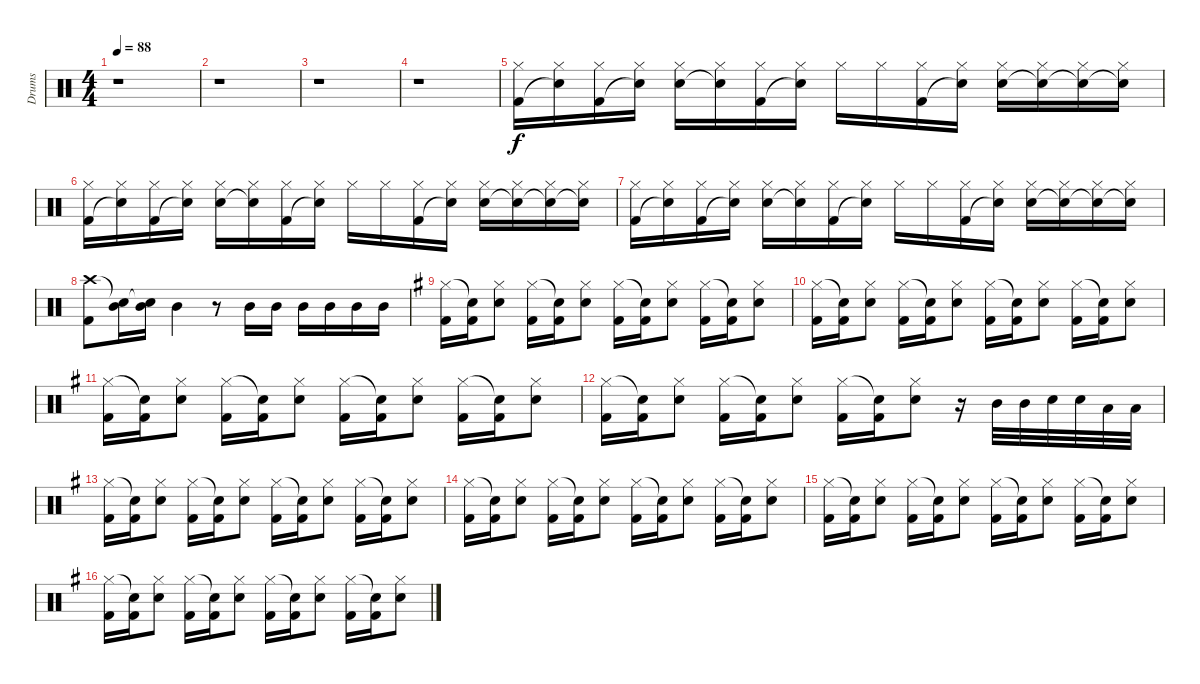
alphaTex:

\track ("Drums" "Drums") {instrument percussion}
\staff {score}
\articulation defaults
\ts (4 4)
\tempo 88
\clef neutral
\ks aminor
r.1{dy f} |
r.1 |
r.1 |
r.1 |
("Hi-Hat (closed)" "Kick (hit) 2").16 ("Hi-Hat (closed)" "Snare (hit)"{t}).16 ("Hi-Hat (closed)" "Kick (hit) 2").16 ("Hi-Hat (closed)" "Snare (hit)"{t}).16 ("Hi-Hat (closed)" "Snare (hit) 2").16 ("Hi-Hat (closed)" "Snare (hit)"{t}).16 ("Hi-Hat (closed)" "Kick (hit) 2").16 ("Hi-Hat (closed)" "Snare (hit)"{t}).16 "Hi-Hat (closed)".16 "Hi-Hat (closed)".16 ("Hi-Hat (closed)" "Kick (hit) 2").16 ("Hi-Hat (closed)" "Snare (hit)"{t}).16 ("Hi-Hat (closed)" "Snare (hit) 2").16 ("Hi-Hat (closed)" "Snare (hit)"{t}).16 ("Hi-Hat (closed)" "Snare (hit)"{t}).16 ("Hi-Hat (closed)" "Snare (hit)"{t}).16 |
("Hi-Hat (closed)" "Kick (hit) 2").16 ("Hi-Hat (closed)" "Snare (hit)"{t}).16 ("Hi-Hat (closed)" "Kick (hit) 2").16 ("Hi-Hat (closed)" "Snare (hit)"{t}).16 ("Hi-Hat (closed)" "Snare (hit) 2").16 ("Hi-Hat (closed)" "Snare (hit)"{t}).16 ("Hi-Hat (closed)" "Kick (hit) 2").16 ("Hi-Hat (closed)" "Snare (hit)"{t}).16 "Hi-Hat (closed)".16 "Hi-Hat (closed)".16 ("Hi-Hat (closed)" "Kick (hit) 2").16 ("Hi-Hat (closed)" "Snare (hit)"{t}).16 ("Hi-Hat (closed)" "Snare (hit) 2").16 ("Hi-Hat (closed)" "Snare (hit)"{t}).16 ("Hi-Hat (closed)" "Snare (hit)"{t}).16 ("Hi-Hat (closed)" "Snare (hit)"{t}).16 |
("Hi-Hat (closed)" "Kick (hit) 2").16 ("Hi-Hat (closed)" "Snare (hit)"{t}).16 ("Hi-Hat (closed)" "Kick (hit) 2").16 ("Hi-Hat (closed)" "Snare (hit)"{t}).16 ("Hi-Hat (closed)" "Snare (hit) 2").16 ("Hi-Hat (closed)" "Snare (hit)"{t}).16 ("Hi-Hat (closed)" "Kick (hit) 2").16 ("Hi-Hat (closed)" "Snare (hit)"{t}).16 "Hi-Hat (closed)".16 "Hi-Hat (closed)".16 ("Hi-Hat (closed)" "Kick (hit) 2").16 ("Hi-Hat (closed)" "Snare (hit)"{t}).16 ("Hi-Hat (closed)" "Snare (hit) 2").16 ("Hi-Hat (closed)" "Snare (hit)"{t}).16 ("Hi-Hat (closed)" "Snare (hit)"{t}).16 ("Hi-Hat (closed)" "Snare (hit)"{t}).16 |
("Crash high (hit)" "Kick (hit) 2").8 ("Snare (hit)"{t} "Mid Tom (hit)").16 ("Snare (hit)"{t} "Mid Tom (hit)").16 "Mid Tom (hit)".4 r.8 "Mid Tom (hit)".16 "Mid Tom (hit)".16 "Mid Tom (hit)".16 "Mid Tom (hit)".16 "Mid Tom (hit)".16 "Mid Tom (hit)".16 |
\ks eminor
("Hi-Hat (closed)" "Kick (hit) 2").16 ("Snare (hit)"{t} "Kick (hit) 2").16 ("Hi-Hat (closed)" "Snare (hit) 2").8 ("Hi-Hat (closed)" "Kick (hit) 2").16 ("Snare (hit)"{t} "Kick (hit) 2").16 ("Hi-Hat (closed)" "Snare (hit) 2").8 ("Hi-Hat (closed)" "Kick (hit) 2").16 ("Snare (hit)"{t} "Kick (hit) 2").16 ("Hi-Hat (closed)" "Snare (hit) 2").8 ("Hi-Hat (closed)" "Kick (hit) 2").16 ("Snare (hit)"{t} "Kick (hit) 2").16 ("Hi-Hat (closed)" "Snare (hit) 2").8 |
("Hi-Hat (closed)" "Kick (hit) 2").16 ("Snare (hit)"{t} "Kick (hit) 2").16 ("Hi-Hat (closed)" "Snare (hit) 2").8 ("Hi-Hat (closed)" "Kick (hit) 2").16 ("Snare (hit)"{t} "Kick (hit) 2").16 ("Hi-Hat (closed)" "Snare (hit) 2").8 ("Hi-Hat (closed)" "Kick (hit) 2").16 ("Snare (hit)"{t} "Kick (hit) 2").16 ("Hi-Hat (closed)" "Snare (hit) 2").8 ("Hi-Hat (closed)" "Kick (hit) 2").16 ("Snare (hit)"{t} "Kick (hit) 2").16 ("Hi-Hat (closed)" "Snare (hit) 2").8 |
("Hi-Hat (closed)" "Kick (hit) 2").16 ("Snare (hit)"{t} "Kick (hit) 2").16 ("Hi-Hat (closed)" "Snare (hit) 2").8 ("Hi-Hat (closed)" "Kick (hit) 2").16 ("Snare (hit)"{t} "Kick (hit) 2").16 ("Hi-Hat (closed)" "Snare (hit) 2").8 ("Hi-Hat (closed)" "Kick (hit) 2").16 ("Snare (hit)"{t} "Kick (hit) 2").16 ("Hi-Hat (closed)" "Snare (hit) 2").8 ("Hi-Hat (closed)" "Kick (hit) 2").16 ("Snare (hit)"{t} "Kick (hit) 2").16 ("Hi-Hat (closed)" "Snare (hit) 2").8 |
("Hi-Hat (closed)" "Kick (hit) 2").16 ("Snare (hit)"{t} "Kick (hit) 2").16 ("Hi-Hat (closed)" "Snare (hit) 2").8 ("Hi-Hat (closed)" "Kick (hit) 2").16 ("Snare (hit)"{t} "Kick (hit) 2").16 ("Hi-Hat (closed)" "Snare (hit) 2").8 ("Hi-Hat (closed)" "Kick (hit) 2").16 ("Snare (hit)"{t} "Kick (hit) 2").16 ("Hi-Hat (closed)" "Snare (hit) 2").8 r.16 "Mid Tom (hit)".32 "Mid Tom (hit)".32 "Snare (hit) 2".32 "Snare (hit) 2".32 "Low Tom (hit)".32 "Low Tom (hit)".32 |
("Hi-Hat (closed)" "Kick (hit) 2").16 ("Snare (hit)"{t} "Kick (hit) 2").16 ("Hi-Hat (closed)" "Snare (hit) 2").8 ("Hi-Hat (closed)" "Kick (hit) 2").16 ("Snare (hit)"{t} "Kick (hit) 2").16 ("Hi-Hat (closed)" "Snare (hit) 2").8 ("Hi-Hat (closed)" "Kick (hit) 2").16 ("Snare (hit)"{t} "Kick (hit) 2").16 ("Hi-Hat (closed)" "Snare (hit) 2").8 ("Hi-Hat (closed)" "Kick (hit) 2").16 ("Snare (hit)"{t} "Kick (hit) 2").16 ("Hi-Hat (closed)" "Snare (hit) 2").8 |
("Hi-Hat (closed)" "Kick (hit) 2").16 ("Snare (hit)"{t} "Kick (hit) 2").16 ("Hi-Hat (closed)" "Snare (hit) 2").8 ("Hi-Hat (closed)" "Kick (hit) 2").16 ("Snare (hit)"{t} "Kick (hit) 2").16 ("Hi-Hat (closed)" "Snare (hit) 2").8 ("Hi-Hat (closed)" "Kick (hit) 2").16 ("Snare (hit)"{t} "Kick (hit) 2").16 ("Hi-Hat (closed)" "Snare (hit) 2").8 ("Hi-Hat (closed)" "Kick (hit) 2").16 ("Snare (hit)"{t} "Kick (hit) 2").16 ("Hi-Hat (closed)" "Snare (hit) 2").8 |
("Hi-Hat (closed)" "Kick (hit) 2").16 ("Snare (hit)"{t} "Kick (hit) 2").16 ("Hi-Hat (closed)" "Snare (hit) 2").8 ("Hi-Hat (closed)" "Kick (hit) 2").16 ("Snare (hit)"{t} "Kick (hit) 2").16 ("Hi-Hat (closed)" "Snare (hit) 2").8 ("Hi-Hat (closed)" "Kick (hit) 2").16 ("Snare (hit)"{t} "Kick (hit) 2").16 ("Hi-Hat (closed)" "Snare (hit) 2").8 ("Hi-Hat (closed)" "Kick (hit) 2").16 ("Snare (hit)"{t} "Kick (hit) 2").16 ("Hi-Hat (closed)" "Snare (hit) 2").8 |
("Hi-Hat (closed)" "Kick (hit) 2").16 ("Snare (hit)"{t} "Kick (hit) 2").16 ("Hi-Hat (closed)" "Snare (hit) 2").8 ("Hi-Hat (closed)" "Kick (hit) 2").16 ("Snare (hit)"{t} "Kick (hit) 2").16 ("Hi-Hat (closed)" "Snare (hit) 2").8 ("Hi-Hat (closed)" "Kick (hit) 2").16 ("Snare (hit)"{t} "Kick (hit) 2").16 ("Hi-Hat (closed)" "Snare (hit) 2").8 ("Hi-Hat (closed)" "Kick (hit) 2").16 ("Snare (hit)"{t} "Kick (hit) 2").16 ("Hi-Hat (closed)" "Snare (hit) 2").8
